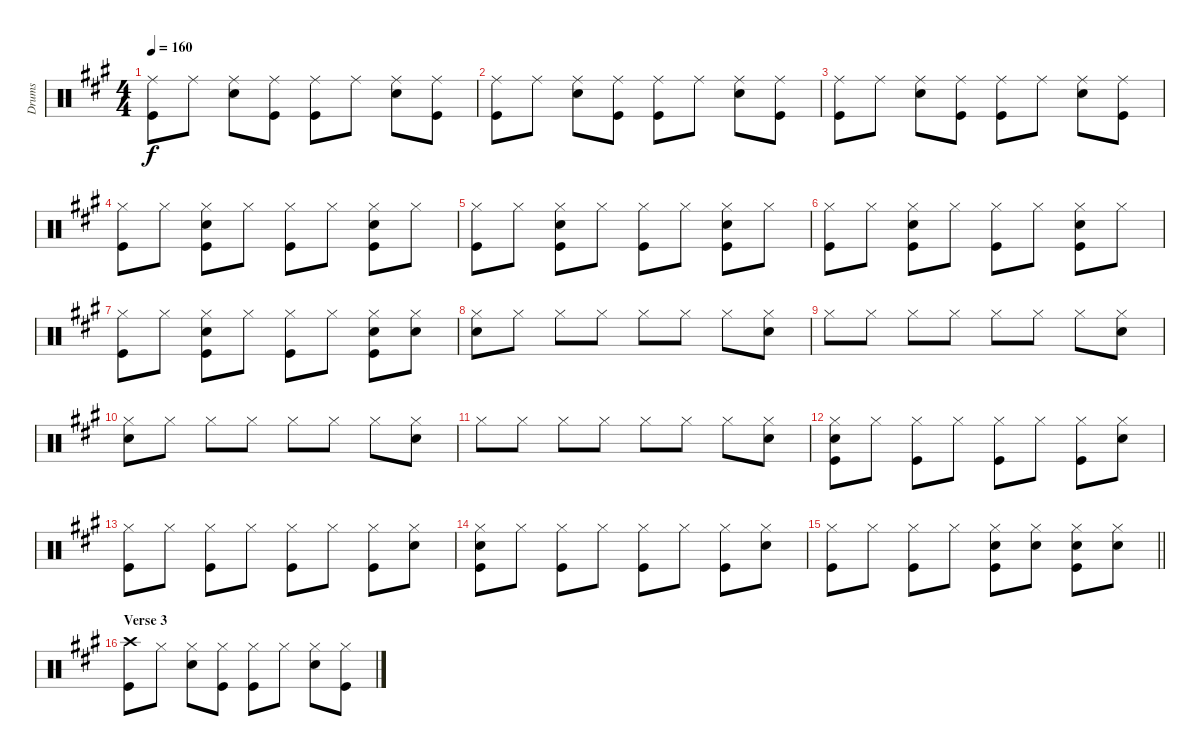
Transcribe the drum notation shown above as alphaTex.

\track ("Drums" "Drums") {instrument percussion}
\staff {score}
\articulation defaults
\ts (4 4)
\tempo 160
\clef neutral
\ks a
("Kick (hit)" "Ride (middle)").8{dy f} "Ride (middle)".8 ("Snare (hit) 2" "Ride (middle)").8 ("Kick (hit)" "Ride (middle)").8 ("Kick (hit)" "Ride (middle)").8 "Ride (middle)".8 ("Snare (hit) 2" "Ride (middle)").8 ("Kick (hit)" "Ride (middle)").8 |
("Kick (hit)" "Ride (middle)").8 "Ride (middle)".8 ("Snare (hit) 2" "Ride (middle)").8 ("Kick (hit)" "Ride (middle)").8 ("Kick (hit)" "Ride (middle)").8 "Ride (middle)".8 ("Snare (hit) 2" "Ride (middle)").8 ("Kick (hit)" "Ride (middle)").8 |
("Kick (hit)" "Ride (middle)").8 "Ride (middle)".8 ("Snare (hit) 2" "Ride (middle)").8 ("Kick (hit)" "Ride (middle)").8 ("Kick (hit)" "Ride (middle)").8 "Ride (middle)".8 ("Snare (hit) 2" "Ride (middle)").8 ("Kick (hit)" "Ride (middle)").8 |
("Hi-Hat (closed)" "Kick (hit)").8 "Hi-Hat (closed)".8 ("Hi-Hat (closed)" "Snare (hit) 2" "Kick (hit)").8 "Hi-Hat (closed)".8 ("Hi-Hat (closed)" "Kick (hit)").8 "Hi-Hat (closed)".8 ("Hi-Hat (closed)" "Snare (hit) 2" "Kick (hit)").8 "Hi-Hat (closed)".8 |
("Hi-Hat (closed)" "Kick (hit)").8 "Hi-Hat (closed)".8 ("Hi-Hat (closed)" "Snare (hit) 2" "Kick (hit)").8 "Hi-Hat (closed)".8 ("Hi-Hat (closed)" "Kick (hit)").8 "Hi-Hat (closed)".8 ("Hi-Hat (closed)" "Snare (hit) 2" "Kick (hit)").8 "Hi-Hat (closed)".8 |
("Hi-Hat (closed)" "Kick (hit)").8 "Hi-Hat (closed)".8 ("Hi-Hat (closed)" "Snare (hit) 2" "Kick (hit)").8 "Hi-Hat (closed)".8 ("Hi-Hat (closed)" "Kick (hit)").8 "Hi-Hat (closed)".8 ("Hi-Hat (closed)" "Snare (hit) 2" "Kick (hit)").8 "Hi-Hat (closed)".8 |
("Hi-Hat (closed)" "Kick (hit)").8 "Hi-Hat (closed)".8 ("Hi-Hat (closed)" "Snare (hit) 2" "Kick (hit)").8 "Hi-Hat (closed)".8 ("Hi-Hat (closed)" "Kick (hit)").8 "Hi-Hat (closed)".8 ("Hi-Hat (closed)" "Snare (hit) 2" "Kick (hit)").8 ("Hi-Hat (closed)" "Snare (hit) 2").8 |
("Snare (hit) 2" "Hi-Hat (closed)").8 "Hi-Hat (closed)".8 "Hi-Hat (closed)".8 "Hi-Hat (closed)".8 "Hi-Hat (closed)".8 "Hi-Hat (closed)".8 "Hi-Hat (closed)".8 ("Hi-Hat (closed)" "Snare (hit) 2").8 |
"Hi-Hat (closed)".8 "Hi-Hat (closed)".8 "Hi-Hat (closed)".8 "Hi-Hat (closed)".8 "Hi-Hat (closed)".8 "Hi-Hat (closed)".8 "Hi-Hat (closed)".8 ("Hi-Hat (closed)" "Snare (hit) 2").8 |
("Snare (hit) 2" "Hi-Hat (closed)").8 "Hi-Hat (closed)".8 "Hi-Hat (closed)".8 "Hi-Hat (closed)".8 "Hi-Hat (closed)".8 "Hi-Hat (closed)".8 "Hi-Hat (closed)".8 ("Hi-Hat (closed)" "Snare (hit) 2").8 |
"Hi-Hat (closed)".8 "Hi-Hat (closed)".8 "Hi-Hat (closed)".8 "Hi-Hat (closed)".8 "Hi-Hat (closed)".8 "Hi-Hat (closed)".8 "Hi-Hat (closed)".8 ("Hi-Hat (closed)" "Snare (hit) 2").8 |
("Snare (hit) 2" "Hi-Hat (closed)" "Kick (hit)").8 "Hi-Hat (closed)".8 ("Hi-Hat (closed)" "Kick (hit)").8 "Hi-Hat (closed)".8 ("Hi-Hat (closed)" "Kick (hit)").8 "Hi-Hat (closed)".8 ("Hi-Hat (closed)" "Kick (hit)").8 ("Hi-Hat (closed)" "Snare (hit) 2").8 |
("Kick (hit)" "Hi-Hat (closed)").8 "Hi-Hat (closed)".8 ("Hi-Hat (closed)" "Kick (hit)").8 "Hi-Hat (closed)".8 ("Hi-Hat (closed)" "Kick (hit)").8 "Hi-Hat (closed)".8 ("Hi-Hat (closed)" "Kick (hit)").8 ("Hi-Hat (closed)" "Snare (hit) 2").8 |
("Snare (hit) 2" "Hi-Hat (closed)" "Kick (hit)").8 "Hi-Hat (closed)".8 ("Hi-Hat (closed)" "Kick (hit)").8 "Hi-Hat (closed)".8 ("Hi-Hat (closed)" "Kick (hit)").8 "Hi-Hat (closed)".8 ("Hi-Hat (closed)" "Kick (hit)").8 ("Hi-Hat (closed)" "Snare (hit) 2").8 |
\barLineRight lightlight
("Kick (hit)" "Hi-Hat (closed)").8 "Hi-Hat (closed)".8 ("Hi-Hat (closed)" "Kick (hit)").8 "Hi-Hat (closed)".8 ("Hi-Hat (closed)" "Kick (hit)" "Snare (hit) 2").8 ("Hi-Hat (closed)" "Snare (hit) 2").8 ("Hi-Hat (closed)" "Kick (hit)" "Snare (hit) 2").8 ("Hi-Hat (closed)" "Snare (hit) 2").8 |
\section ("" "Verse 3")
("Crash high (hit)" "Kick (hit)").8 "Hi-Hat (closed)".8 ("Hi-Hat (closed)" "Snare (hit) 2").8 ("Hi-Hat (closed)" "Kick (hit)").8 ("Hi-Hat (closed)" "Kick (hit)").8 "Hi-Hat (closed)".8 ("Hi-Hat (closed)" "Snare (hit) 2").8 ("Hi-Hat (closed)" "Kick (hit)").8
